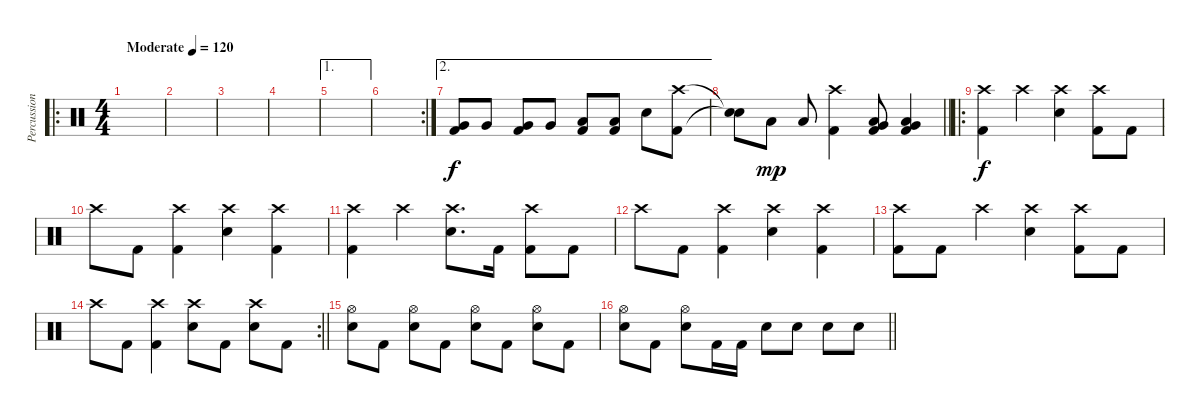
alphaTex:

\track ("Percussions" "Percussion") {instrument percussion}
\staff {score}
\articulation defaults
\ro
\ts (4 4)
\tempo (120 "Moderate")
\clef neutral
\ks c
|
|
|
|
\ae 1
|
\rc 2
|
\ae 2
("Very Low Tom (hit)" "Kick (hit) 2").8 "Very Low Tom (hit)".8 ("Very Low Tom (hit)" "Kick (hit) 2").8 "Very Low Tom (hit)".8 ("Low Floor Tom (hit)" "Kick (hit) 2").8 ("Low Floor Tom (hit)" "Kick (hit) 2").8 "Electric Snare (hit)".8 ("Crash high (hit)" "Kick (hit) 2").8 |
\barLineRight lightlight
("Snare (hit)"{t} "Snare (hit)"{t}).8{dy f} "Low Tom (hit)".8{dy mp} "Low Tom (hit)".8 ("Crash high (hit)" "Kick (hit) 2").4 ("Very Low Tom (hit)" "Low Floor Tom (hit)" "Kick (hit) 2").8 ("Very Low Tom (hit)" "Low Floor Tom (hit)" "Kick (hit) 2").4 |
\ro
\section ("" "")
("Crash high (hit)" "Kick (hit) 2").4{dy f} "Crash high (hit)".4 ("Crash high (hit)" "Electric Snare (hit)").4 ("Crash high (hit)" "Kick (hit) 2").8 "Kick (hit) 2".8 |
"Crash high (hit)".8 "Kick (hit) 2".8 ("Crash high (hit)" "Kick (hit) 2").4 ("Crash high (hit)" "Electric Snare (hit)").4 ("Crash high (hit)" "Kick (hit) 2").4 |
("Crash high (hit)" "Kick (hit) 2").4 "Crash high (hit)".4 ("Crash high (hit)" "Electric Snare (hit)").8{d} "Kick (hit) 2".16 ("Crash high (hit)" "Kick (hit) 2").8 "Kick (hit) 2".8 |
"Crash high (hit)".8 "Kick (hit) 2".8 ("Crash high (hit)" "Kick (hit) 2").4 ("Crash high (hit)" "Electric Snare (hit)").4 ("Crash high (hit)" "Kick (hit) 2").4 |
("Crash high (hit)" "Kick (hit) 2").8 "Kick (hit) 2".8 "Crash high (hit)".4 ("Crash high (hit)" "Electric Snare (hit)").4 ("Crash high (hit)" "Kick (hit) 2").8 "Kick (hit) 2".8 |
\rc 2
\barLineRight lightlight "Crash high (hit)".8 "Kick (hit) 2".8
("Crash high (hit)" "Kick (hit) 2").4 ("Crash high (hit)" "Electric Snare (hit)").8 "Kick (hit) 2".8 ("Crash high (hit)" "Electric Snare (hit)").8 "Kick (hit) 2".8 |
("Hi-Hat (open)" "Electric Snare (hit)").8 "Kick (hit) 2".8 ("Hi-Hat (open)" "Electric Snare (hit)").8 "Kick (hit) 2".8 ("Hi-Hat (open)" "Electric Snare (hit)").8 "Kick (hit) 2".8 ("Hi-Hat (open)" "Electric Snare (hit)").8 "Kick (hit) 2".8 |
\barLineRight lightlight
("Hi-Hat (open)" "Electric Snare (hit)").8 "Kick (hit) 2".8 ("Hi-Hat (open)" "Electric Snare (hit)").8 "Kick (hit) 2".16 "Kick (hit) 2".16 "Electric Snare (hit)".8 "Electric Snare (hit)".8 "Electric Snare (hit)".8 "Electric Snare (hit)".8
